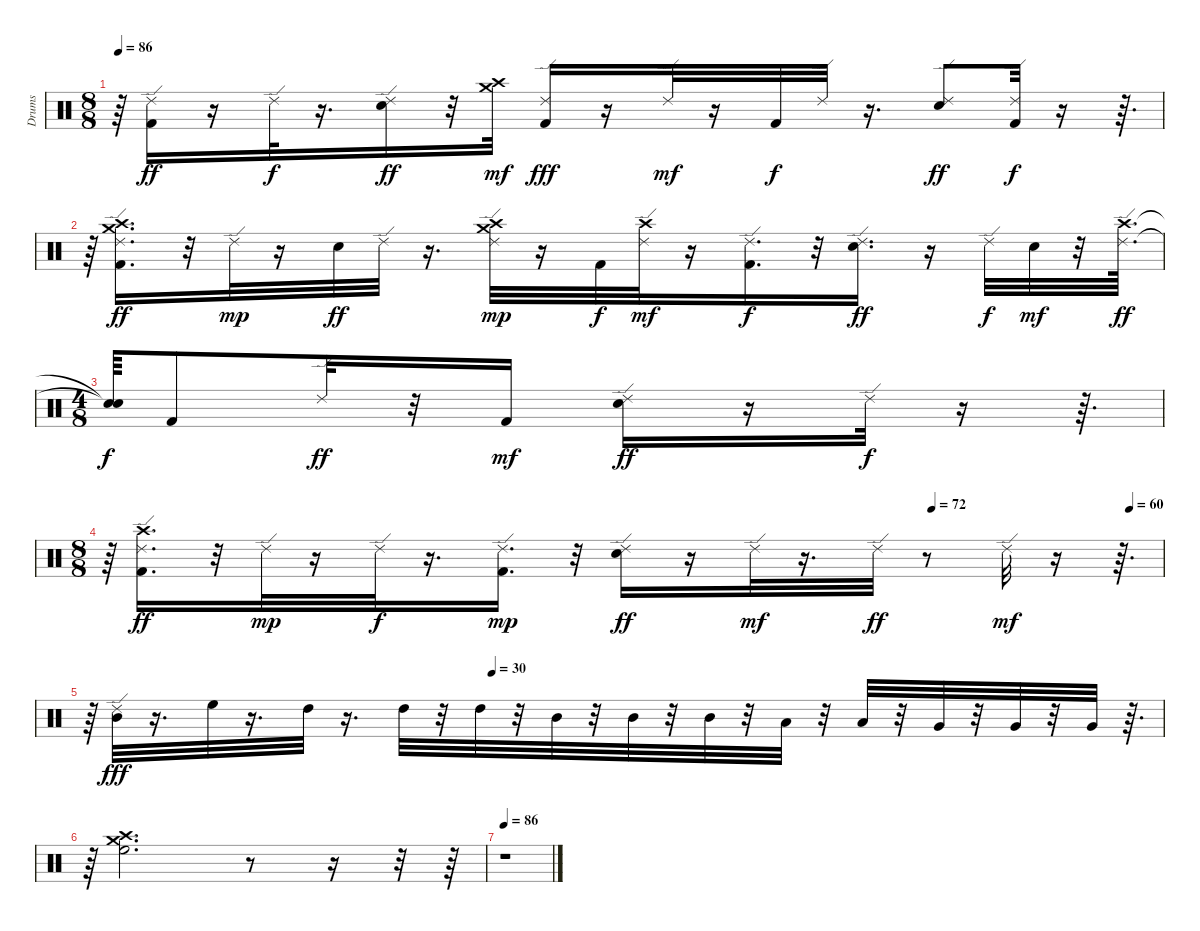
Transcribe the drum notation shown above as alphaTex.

\track ("Drums" "Drums") {instrument percussion}
\staff {score}
\articulation defaults
\ts (8 8)
\tempo 86
\clef neutral
\ks c
r.64{dy mf} ("Kick (hit) 2" "Ride (edge) 2").16{dy ff} r.16 "Ride (edge) 2".32{dy f} r.16{d} ("Electric Snare (hit)" "Ride (edge) 2").16{dy ff} r.32 ("Crash high (hit)" "Crash medium (hit)").32{dy mf} ("Kick (hit) 2" "Ride (edge) 2").16{dy fff} r.16 "Ride (edge) 2".32{dy mf} r.16 "Kick (hit) 2".32{dy f} "Ride (edge) 2".32 r.16{d} ("Ride (edge) 2" "Electric Snare (hit)").8{dy ff} ("Kick (hit) 2" "Ride (edge) 2").32{dy f} r.16 r.64{d} |
r.64 ("Crash medium (hit)" "Crash high (hit)" "Ride (edge) 2" "Kick (hit) 2").16{d dy ff} r.32 "Ride (edge) 2".32{dy mp} r.16 "Electric Snare (hit)".32{dy ff} "Ride (edge) 2".32 r.16{d} ("Ride (edge) 2" "Crash high (hit)" "Crash medium (hit)").32{dy mp} r.16 "Kick (hit) 2".32{dy f} ("Ride (edge) 2" "Crash high (hit)").32{dy mf} r.16 ("Kick (hit) 2" "Ride (edge) 2").16{d dy f} r.32 ("Electric Snare (hit)" "Ride (edge) 2").16{d dy ff} r.16 "Ride (edge) 2".32{dy f} "Electric Snare (hit)".32{dy mf} r.32 ("Crash high (hit)" "Ride (edge) 2").64{d dy ff} |
\ts (4 8)
("Snare (hit)"{t} "Snare (hit)"{t}).64{dy f} "Kick (hit) 2".8 "Ride (edge) 2".32{dy ff} r.32 "Kick (hit) 2".16{dy mf} ("Electric Snare (hit)" "Ride (edge) 2").16{dy ff} r.16 "Ride (edge) 2".32{dy f} r.16 r.64{d} |
\ts (8 8)
\tempo (72 0.78125)
\tempo (60 0.96875)
r.64 ("Kick (hit) 2" "Ride (edge) 2" "Crash high (hit)").16{d dy ff} r.32 "Ride (edge) 2".32{dy mp} r.16 "Ride (edge) 2".32{dy f} r.16{d} ("Ride (edge) 2" "Kick (hit) 2").16{d dy mp} r.32 ("Electric Snare (hit)" "Ride (edge) 2").16{dy ff} r.16 "Ride (edge) 2".32{dy mf} r.16{d} "Ride (edge) 2".32{dy ff} r.8 "Ride (edge) 2".32{dy mf} r.16 r.64{d} |
\tempo (30 0.375)
r.64 ("Ride (edge) 2" "Mid Tom (hit)").32{dy fff} r.16{d} "High Floor Tom (hit)".32 r.16{d} "High Tom (hit)".32 r.16{d} "High Tom (hit)".32 r.32 "High Tom (hit)".32 r.32 "Mid Tom (hit)".32 r.32 "Mid Tom (hit)".32 r.32 "Mid Tom (hit)".32 r.32 "Low Tom (hit)".32 r.32 "Low Tom (hit)".32 r.32 "Very Low Tom (hit)".32 r.32 "Very Low Tom (hit)".32 r.32 "Very Low Tom (hit)".32 r.64{d} |
r.64 ("High Floor Tom (hit)" "Crash high (hit)" "Crash medium (hit)").2{d} r.8 r.16 r.32 r.64 |
\tempo 86
r.1
